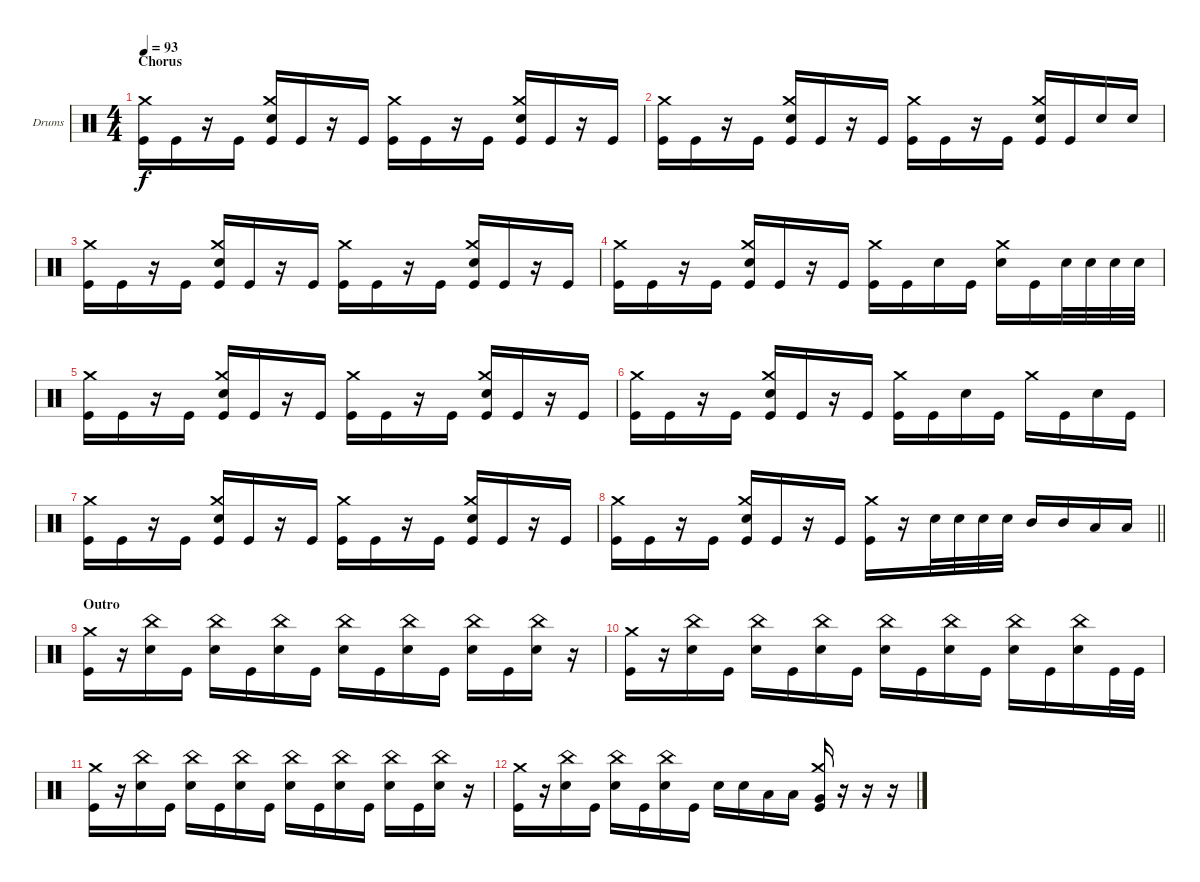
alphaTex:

\bracketExtendMode groupsimilarinstruments
\firstSystemTrackNameOrientation horizontal
\otherSystemsTrackNameOrientation horizontal
\track ("Drumkit" "Drums") {instrument percussion}
\staff {score}
\articulation defaults
\ts (4 4)
\section ("" "Chorus")
\tempo 93
\clef neutral
\scale
0.333333
\ks c
("Kick (hit)" "Crash medium (hit)").16{dy f} "Kick (hit)".16 r.16 "Kick (hit)".16 ("Kick (hit)" "Crash medium (hit)" "Snare (hit) 2").16 "Kick (hit)".16 r.16 "Kick (hit)".16 ("Kick (hit)" "Crash medium (hit)").16 "Kick (hit)".16 r.16 "Kick (hit)".16 ("Kick (hit)" "Crash medium (hit)" "Snare (hit) 2").16 "Kick (hit)".16 r.16 "Kick (hit)".16 |
\scale
0.333333 ("Kick (hit)" "Crash medium (hit)").16 "Kick (hit)".16 r.16 "Kick (hit)".16 ("Kick (hit)" "Crash medium (hit)" "Snare (hit) 2").16 "Kick (hit)".16 r.16 "Kick (hit)".16 ("Kick (hit)" "Crash medium (hit)").16 "Kick (hit)".16 r.16 "Kick (hit)".16 ("Kick (hit)" "Crash medium (hit)" "Snare (hit) 2").16 "Kick (hit)".16 "Snare (hit) 2".16 "Snare (hit) 2".16 |
\scale
0.333333 ("Kick (hit)" "Crash medium (hit)").16 "Kick (hit)".16 r.16 "Kick (hit)".16 ("Kick (hit)" "Crash medium (hit)" "Snare (hit) 2").16 "Kick (hit)".16 r.16 "Kick (hit)".16 ("Kick (hit)" "Crash medium (hit)").16 "Kick (hit)".16 r.16 "Kick (hit)".16 ("Kick (hit)" "Crash medium (hit)" "Snare (hit) 2").16 "Kick (hit)".16 r.16 "Kick (hit)".16 |
\scale
0.333333 ("Kick (hit)" "Crash medium (hit)").16 "Kick (hit)".16 r.16 "Kick (hit)".16 ("Kick (hit)" "Crash medium (hit)" "Snare (hit) 2").16 "Kick (hit)".16 r.16 "Kick (hit)".16 ("Kick (hit)" "Crash medium (hit)").16 "Kick (hit)".16 "Snare (hit) 2".16 "Kick (hit)".16 ("Crash medium (hit)" "Snare (hit) 2").16 "Kick (hit)".16 "Snare (hit) 2".32 "Snare (hit) 2".32 "Snare (hit) 2".32 "Snare (hit) 2".32 |
\scale
0.333333 ("Kick (hit)" "Crash medium (hit)").16 "Kick (hit)".16 r.16 "Kick (hit)".16 ("Kick (hit)" "Crash medium (hit)" "Snare (hit) 2").16 "Kick (hit)".16 r.16 "Kick (hit)".16 ("Kick (hit)" "Crash medium (hit)").16 "Kick (hit)".16 r.16 "Kick (hit)".16 ("Kick (hit)" "Crash medium (hit)" "Snare (hit) 2").16 "Kick (hit)".16 r.16 "Kick (hit)".16 |
\scale
0.333333 ("Kick (hit)" "Crash medium (hit)").16 "Kick (hit)".16 r.16 "Kick (hit)".16 ("Kick (hit)" "Crash medium (hit)" "Snare (hit) 2").16 "Kick (hit)".16 r.16 "Kick (hit)".16 ("Kick (hit)" "Crash medium (hit)").16 "Kick (hit)".16 "Snare (hit) 2".16 "Kick (hit)".16 "Crash medium (hit)".16 "Kick (hit)".16 "Snare (hit) 2".16 "Kick (hit)".16 |
\scale
0.333333 ("Kick (hit)" "Crash medium (hit)").16 "Kick (hit)".16 r.16 "Kick (hit)".16 ("Kick (hit)" "Crash medium (hit)" "Snare (hit) 2").16 "Kick (hit)".16 r.16 "Kick (hit)".16 ("Kick (hit)" "Crash medium (hit)").16 "Kick (hit)".16 r.16 "Kick (hit)".16 ("Kick (hit)" "Crash medium (hit)" "Snare (hit) 2").16 "Kick (hit)".16 r.16 "Kick (hit)".16 |
\scale
0.333333
\barLineRight lightlight
("Kick (hit)" "Crash medium (hit)").16 "Kick (hit)".16 r.16 "Kick (hit)".16 ("Kick (hit)" "Crash medium (hit)" "Snare (hit) 2").16 "Kick (hit)".16 r.16 "Kick (hit)".16 ("Crash medium (hit)" "Kick (hit)").16 r.16 "Snare (hit) 2".32 "Snare (hit) 2".32 "Snare (hit) 2".32 "Snare (hit) 2".32 "Mid Tom (hit)".16 "Mid Tom (hit)".16 "Low Tom (hit)".16 "Low Tom (hit)".16 |
\section ("" "Outro")
\scale
0.333333 ("Kick (hit)" "Crash medium (hit)").16 r.16 ("Snare (hit) 2" "China (hit)").16 "Kick (hit)".16 ("Snare (hit) 2" "China (hit)").16 "Kick (hit)".16 ("Snare (hit) 2" "China (hit)").16 "Kick (hit)".16 ("Snare (hit) 2" "China (hit)").16 "Kick (hit)".16 ("Snare (hit) 2" "China (hit)").16 "Kick (hit)".16 ("Snare (hit) 2" "China (hit)").16 "Kick (hit)".16 ("Snare (hit) 2" "China (hit)").16 r.16 |
\scale
0.333333 ("Kick (hit)" "Crash medium (hit)").16 r.16 ("Snare (hit) 2" "China (hit)").16 "Kick (hit)".16 ("Snare (hit) 2" "China (hit)").16 "Kick (hit)".16 ("Snare (hit) 2" "China (hit)").16 "Kick (hit)".16 ("Snare (hit) 2" "China (hit)").16 "Kick (hit)".16 ("Snare (hit) 2" "China (hit)").16 "Kick (hit)".16 ("Snare (hit) 2" "China (hit)").16 "Kick (hit)".16 ("Snare (hit) 2" "China (hit)").16 "Kick (hit)".32 "Kick (hit)".32 |
\scale
0.333333 ("Kick (hit)" "Crash medium (hit)").16 r.16 ("Snare (hit) 2" "China (hit)").16 "Kick (hit)".16 ("Snare (hit) 2" "China (hit)").16 "Kick (hit)".16 ("Snare (hit) 2" "China (hit)").16 "Kick (hit)".16 ("Snare (hit) 2" "China (hit)").16 "Kick (hit)".16 ("Snare (hit) 2" "China (hit)").16 "Kick (hit)".16 ("Snare (hit) 2" "China (hit)").16 "Kick (hit)".16 ("Snare (hit) 2" "China (hit)").16 r.16 |
\scale
0.333333 ("Kick (hit)" "Crash medium (hit)").16 r.16 ("Snare (hit) 2" "China (hit)").16 "Kick (hit)".16 ("Snare (hit) 2" "China (hit)").16 "Kick (hit)".16 ("Snare (hit) 2" "China (hit)").16 "Kick (hit)".16 "Snare (hit) 2".16 "Snare (hit) 2".16 "Low Tom (hit)".16 "Low Tom (hit)".16 ("Very Low Tom (hit)" "Crash medium (hit)" "Kick (hit)").16 r.16 r.16 r.16 |
\scale
0.333333 |
\scale
0.333333 |
\scale
0.333333 |
\scale
0.333333
